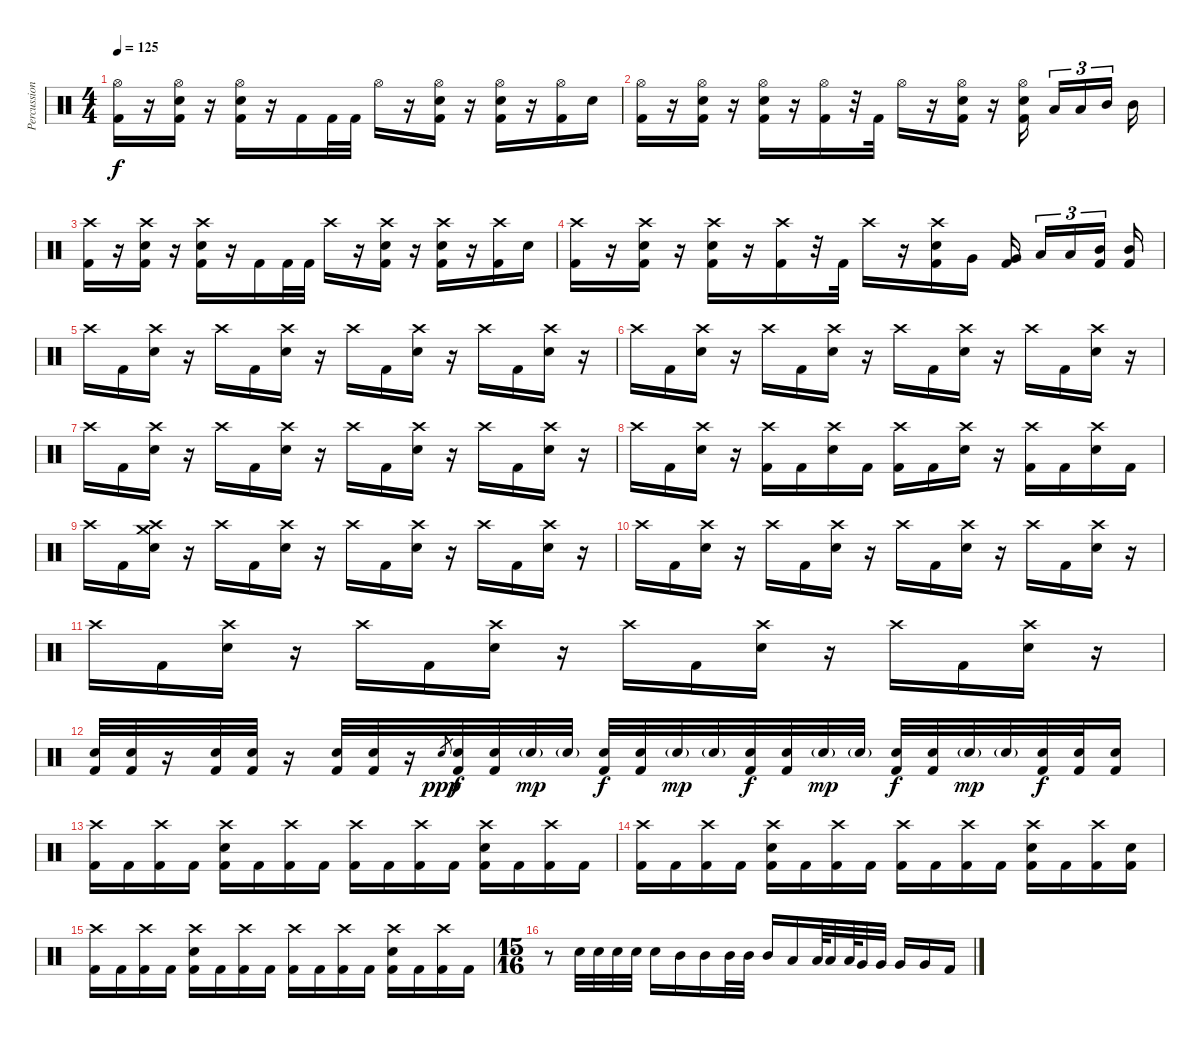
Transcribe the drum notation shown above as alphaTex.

\track ("Percussion" "Percussion") {instrument percussion}
\staff {score}
\articulation defaults
\ts (4 4)
\tempo 125
\clef neutral
\ks c
("Hi-Hat (open)" "Kick (hit) 2").16{dy f} r.16 ("Hi-Hat (open)" "Electric Snare (hit)" "Kick (hit) 2").16 r.16 ("Hi-Hat (open)" "Electric Snare (hit)" "Kick (hit) 2").16 r.16 "Kick (hit) 2".16 "Kick (hit) 2".32 "Kick (hit) 2".32 "Hi-Hat (open)".16 r.16 ("Hi-Hat (open)" "Electric Snare (hit)" "Kick (hit) 2").16 r.16 ("Hi-Hat (open)" "Electric Snare (hit)" "Kick (hit) 2").16 r.16 ("Hi-Hat (open)" "Kick (hit) 2").16 "Electric Snare (hit)".16 |
("Hi-Hat (open)" "Kick (hit) 2").16 r.16 ("Hi-Hat (open)" "Electric Snare (hit)" "Kick (hit) 2").16 r.16 ("Hi-Hat (open)" "Electric Snare (hit)" "Kick (hit) 2").16 r.16 ("Hi-Hat (open)" "Kick (hit) 2").16 r.32 "Kick (hit) 2".32 "Hi-Hat (open)".16 r.16 ("Hi-Hat (open)" "Electric Snare (hit)" "Kick (hit) 2").16 r.16 ("Hi-Hat (open)" "Electric Snare (hit)" "Kick (hit) 2").16{beam splitsecondary} "Low Tom (hit)".16{tu (3 2)} "Low Tom (hit)".16{tu (3 2)} "Mid Tom (hit)".16{tu (3 2) beam splitsecondary} "Mid Tom (hit)".16 |
("Crash high (hit)" "Kick (hit) 2").16 r.16 ("Crash high (hit)" "Electric Snare (hit)" "Kick (hit) 2").16 r.16 ("Crash high (hit)" "Electric Snare (hit)" "Kick (hit) 2").16 r.16 "Kick (hit) 2".16 "Kick (hit) 2".32 "Kick (hit) 2".32 "Crash high (hit)".16 r.16 ("Crash high (hit)" "Electric Snare (hit)" "Kick (hit) 2").16 r.16 ("Crash high (hit)" "Electric Snare (hit)" "Kick (hit) 2").16 r.16 ("Crash high (hit)" "Kick (hit) 2").16 "Electric Snare (hit)".16 |
("Crash high (hit)" "Kick (hit) 2").16 r.16 ("Crash high (hit)" "Electric Snare (hit)" "Kick (hit) 2").16 r.16 ("Crash high (hit)" "Electric Snare (hit)" "Kick (hit) 2").16 r.16 ("Crash high (hit)" "Kick (hit) 2").16 r.32 "Kick (hit) 2".32 "Crash high (hit)".16 r.16 ("Crash high (hit)" "Electric Snare (hit)" "Kick (hit) 2").16 "Very Low Tom (hit)".16 ("Very Low Tom (hit)" "Kick (hit) 2").16{beam splitsecondary} "Low Tom (hit)".16{tu (3 2)} "Low Tom (hit)".16{tu (3 2)} ("Mid Tom (hit)" "Kick (hit) 2").16{tu (3 2) beam splitsecondary} ("Mid Tom (hit)" "Kick (hit) 2").16 |
"Crash high (hit)".16 "Kick (hit) 2".16 ("Crash high (hit)" "Electric Snare (hit)").16 r.16 "Crash high (hit)".16 "Kick (hit) 2".16 ("Crash high (hit)" "Electric Snare (hit)").16 r.16 "Crash high (hit)".16 "Kick (hit) 2".16 ("Crash high (hit)" "Electric Snare (hit)").16 r.16 "Crash high (hit)".16 "Kick (hit) 2".16 ("Crash high (hit)" "Electric Snare (hit)").16 r.16 |
"Crash high (hit)".16 "Kick (hit) 2".16 ("Crash high (hit)" "Electric Snare (hit)").16 r.16 "Crash high (hit)".16 "Kick (hit) 2".16 ("Crash high (hit)" "Electric Snare (hit)").16 r.16 "Crash high (hit)".16 "Kick (hit) 2".16 ("Crash high (hit)" "Electric Snare (hit)").16 r.16 "Crash high (hit)".16 "Kick (hit) 2".16 ("Crash high (hit)" "Electric Snare (hit)").16 r.16 |
"Crash high (hit)".16 "Kick (hit) 2".16 ("Crash high (hit)" "Electric Snare (hit)").16 r.16 "Crash high (hit)".16 "Kick (hit) 2".16 ("Crash high (hit)" "Electric Snare (hit)").16 r.16 "Crash high (hit)".16 "Kick (hit) 2".16 ("Crash high (hit)" "Electric Snare (hit)").16 r.16 "Crash high (hit)".16 "Kick (hit) 2".16 ("Crash high (hit)" "Electric Snare (hit)").16 r.16 |
"Crash high (hit)".16 "Kick (hit) 2".16 ("Crash high (hit)" "Electric Snare (hit)").16 r.16 ("Crash high (hit)" "Kick (hit) 2").16 "Kick (hit) 2".16 ("Crash high (hit)" "Electric Snare (hit)").16 "Kick (hit) 2".16 ("Crash high (hit)" "Kick (hit) 2").16 "Kick (hit) 2".16 ("Crash high (hit)" "Electric Snare (hit)").16 r.16 ("Crash high (hit)" "Kick (hit) 2").16 "Kick (hit) 2".16 ("Crash high (hit)" "Electric Snare (hit)").16 "Kick (hit) 2".16 |
"Crash high (hit)".16 "Kick (hit) 2".16 ("Crash medium (hit)" "Crash high (hit)" "Electric Snare (hit)").16 r.16 "Crash high (hit)".16 "Kick (hit) 2".16 ("Crash high (hit)" "Electric Snare (hit)").16 r.16 "Crash high (hit)".16 "Kick (hit) 2".16 ("Crash high (hit)" "Electric Snare (hit)").16 r.16 "Crash high (hit)".16 "Kick (hit) 2".16 ("Crash high (hit)" "Electric Snare (hit)").16 r.16 |
"Crash high (hit)".16 "Kick (hit) 2".16 ("Crash high (hit)" "Electric Snare (hit)").16 r.16 "Crash high (hit)".16 "Kick (hit) 2".16 ("Crash high (hit)" "Electric Snare (hit)").16 r.16 "Crash high (hit)".16 "Kick (hit) 2".16 ("Crash high (hit)" "Electric Snare (hit)").16 r.16 "Crash high (hit)".16 "Kick (hit) 2".16 ("Crash high (hit)" "Electric Snare (hit)").16 r.16 |
"Crash high (hit)".16 "Kick (hit) 2".16 ("Crash high (hit)" "Electric Snare (hit)").16 r.16 "Crash high (hit)".16 "Kick (hit) 2".16 ("Crash high (hit)" "Electric Snare (hit)").16 r.16 "Crash high (hit)".16 "Kick (hit) 2".16 ("Crash high (hit)" "Electric Snare (hit)").16 r.16 "Crash high (hit)".16 "Kick (hit) 2".16 ("Crash high (hit)" "Electric Snare (hit)").16 r.16 |
("Electric Snare (hit)" "Kick (hit) 2").32 ("Electric Snare (hit)" "Kick (hit) 2").32 r.16 ("Electric Snare (hit)" "Kick (hit) 2").32 ("Electric Snare (hit)" "Kick (hit) 2").32 r.16 ("Electric Snare (hit)" "Kick (hit) 2").32 ("Electric Snare (hit)" "Kick (hit) 2").32 r.16 "Electric Snare (hit)"{x}.8{gr dy ppp} ("Electric Snare (hit)" "Kick (hit) 2").32{dy f} ("Electric Snare (hit)" "Kick (hit) 2").32 "Electric Snare (hit)"{g}.32{dy mp} "Electric Snare (hit)"{g}.32 ("Electric Snare (hit)" "Kick (hit) 2").32{dy f} ("Electric Snare (hit)" "Kick (hit) 2").32 "Electric Snare (hit)"{g}.32{dy mp} "Electric Snare (hit)"{g}.32 ("Electric Snare (hit)" "Kick (hit) 2").32{dy f} ("Electric Snare (hit)" "Kick (hit) 2").32 "Electric Snare (hit)"{g}.32{dy mp} "Electric Snare (hit)"{g}.32 ("Electric Snare (hit)" "Kick (hit) 2").32{dy f} ("Electric Snare (hit)" "Kick (hit) 2").32 "Electric Snare (hit)"{g}.32{dy mp} "Electric Snare (hit)"{g}.32 ("Electric Snare (hit)" "Kick (hit) 2").32{dy f} ("Electric Snare (hit)" "Kick (hit) 2").32 ("Electric Snare (hit)" "Kick (hit) 2").16 |
("Crash high (hit)" "Kick (hit) 2").16 "Kick (hit) 2".16 ("Crash high (hit)" "Kick (hit) 2").16 "Kick (hit) 2".16 ("Crash high (hit)" "Electric Snare (hit)" "Kick (hit) 2").16 "Kick (hit) 2".16 ("Crash high (hit)" "Kick (hit) 2").16 "Kick (hit) 2".16 ("Crash high (hit)" "Kick (hit) 2").16 "Kick (hit) 2".16 ("Crash high (hit)" "Kick (hit) 2").16 "Kick (hit) 2".16 ("Crash high (hit)" "Electric Snare (hit)" "Kick (hit) 2").16 "Kick (hit) 2".16 ("Crash high (hit)" "Kick (hit) 2").16 "Kick (hit) 2".16 |
("Crash high (hit)" "Kick (hit) 2").16 "Kick (hit) 2".16 ("Crash high (hit)" "Kick (hit) 2").16 "Kick (hit) 2".16 ("Crash high (hit)" "Electric Snare (hit)" "Kick (hit) 2").16 "Kick (hit) 2".16 ("Crash high (hit)" "Kick (hit) 2").16 "Kick (hit) 2".16 ("Crash high (hit)" "Kick (hit) 2").16 "Kick (hit) 2".16 ("Crash high (hit)" "Kick (hit) 2").16 "Kick (hit) 2".16 ("Crash high (hit)" "Electric Snare (hit)" "Kick (hit) 2").16 "Kick (hit) 2".16 ("Crash high (hit)" "Kick (hit) 2").16 ("Electric Snare (hit)" "Kick (hit) 2").16 |
("Crash high (hit)" "Kick (hit) 2").16 "Kick (hit) 2".16 ("Crash high (hit)" "Kick (hit) 2").16 "Kick (hit) 2".16 ("Crash high (hit)" "Electric Snare (hit)" "Kick (hit) 2").16 "Kick (hit) 2".16 ("Crash high (hit)" "Kick (hit) 2").16 "Kick (hit) 2".16 ("Crash high (hit)" "Kick (hit) 2").16 "Kick (hit) 2".16 ("Crash high (hit)" "Kick (hit) 2").16 "Kick (hit) 2".16 ("Crash high (hit)" "Electric Snare (hit)" "Kick (hit) 2").16 "Kick (hit) 2".16 ("Crash high (hit)" "Kick (hit) 2").16 "Kick (hit) 2".16 |
\ts (15 16)
r.8 "Electric Snare (hit)".32 "Electric Snare (hit)".32 "Electric Snare (hit)".32 "Electric Snare (hit)".32 "Electric Snare (hit)".16 "Mid Tom (hit)".16 "Mid Tom (hit)".16 "Mid Tom (hit)".32 "Mid Tom (hit)".32 "Mid Tom (hit)".16 "Low Tom (hit)".16 "Low Tom (hit)".64 "Low Tom (hit)".32 "Low Tom (hit)".64 "Very Low Tom (hit)".32 "Very Low Tom (hit)".32 "Very Low Tom (hit)".16 "Very Low Tom (hit)".16 "Kick (hit) 2".16
